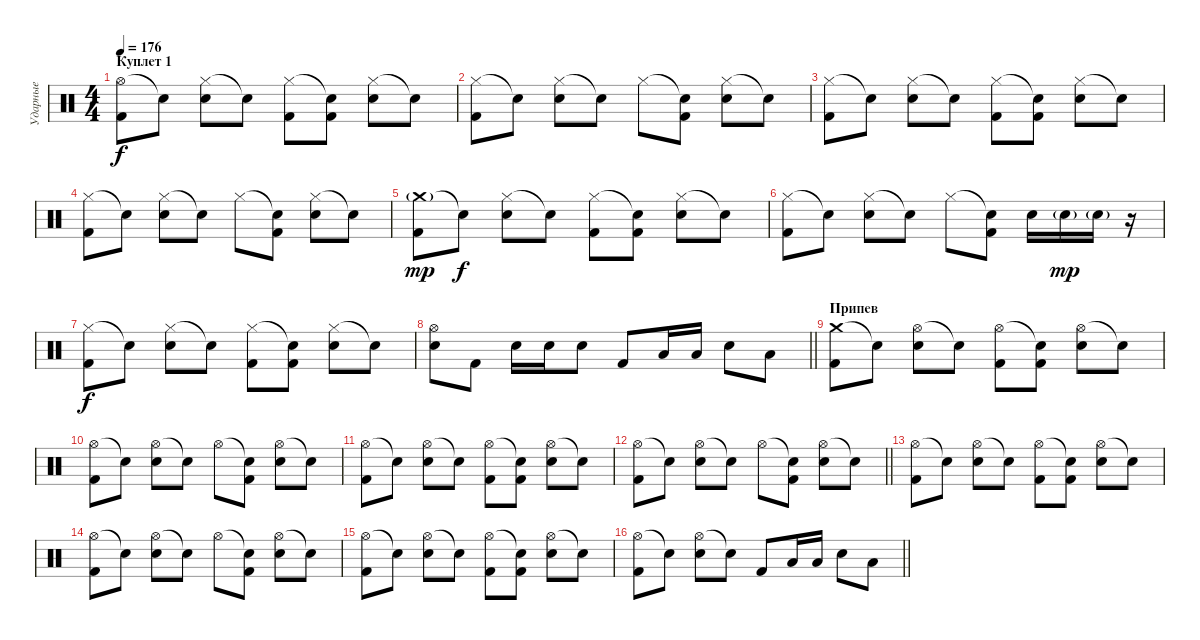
\track ("Ударные" "Ударные") {instrument percussion}
\staff {score}
\articulation defaults
\ts (4 4)
\section ("" "Куплет 1")
\tempo 176
\clef neutral
\ks c
("Hi-Hat (open)" "Kick (hit) 2").8{dy f} "Snare (hit)"{t}.8 ("Hi-Hat (closed)" "Snare (hit) 2").8 "Snare (hit)"{t}.8 ("Hi-Hat (closed)" "Kick (hit) 2").8 ("Snare (hit)"{t} "Kick (hit) 2").8 ("Hi-Hat (closed)" "Snare (hit) 2").8 "Snare (hit)"{t}.8 |
("Hi-Hat (closed)" "Kick (hit) 2").8 "Snare (hit)"{t}.8 ("Hi-Hat (closed)" "Snare (hit) 2").8 "Snare (hit)"{t}.8 "Hi-Hat (closed)".8 ("Snare (hit)"{t} "Kick (hit) 2").8 ("Hi-Hat (closed)" "Snare (hit) 2").8 "Snare (hit)"{t}.8 |
("Hi-Hat (closed)" "Kick (hit) 2").8 "Snare (hit)"{t}.8 ("Hi-Hat (closed)" "Snare (hit) 2").8 "Snare (hit)"{t}.8 ("Hi-Hat (closed)" "Kick (hit) 2").8 ("Snare (hit)"{t} "Kick (hit) 2").8 ("Hi-Hat (closed)" "Snare (hit) 2").8 "Snare (hit)"{t}.8 |
("Hi-Hat (closed)" "Kick (hit) 2").8 "Snare (hit)"{t}.8 ("Hi-Hat (closed)" "Snare (hit) 2").8 "Snare (hit)"{t}.8 "Hi-Hat (closed)".8 ("Snare (hit)"{t} "Kick (hit) 2").8 ("Hi-Hat (closed)" "Snare (hit) 2").8 "Snare (hit)"{t}.8 |
("Crash medium (hit)"{g} "Kick (hit) 2").8{dy mp} "Snare (hit)"{t}.8{dy f} ("Hi-Hat (closed)" "Snare (hit) 2").8 "Snare (hit)"{t}.8 ("Hi-Hat (closed)" "Kick (hit) 2").8 ("Snare (hit)"{t} "Kick (hit) 2").8 ("Hi-Hat (closed)" "Snare (hit) 2").8 "Snare (hit)"{t}.8 |
("Hi-Hat (closed)" "Kick (hit) 2").8 "Snare (hit)"{t}.8 ("Hi-Hat (closed)" "Snare (hit) 2").8 "Snare (hit)"{t}.8 "Hi-Hat (closed)".8 ("Snare (hit)"{t} "Kick (hit) 2").8 "Snare (hit) 2".16 "Snare (hit) 2"{g}.16{dy mp} "Snare (hit) 2"{g}.16 r.16 |
("Hi-Hat (closed)" "Kick (hit) 2").8{dy f} "Snare (hit)"{t}.8 ("Hi-Hat (closed)" "Snare (hit) 2").8 "Snare (hit)"{t}.8 ("Hi-Hat (closed)" "Kick (hit) 2").8 ("Snare (hit)"{t} "Kick (hit) 2").8 ("Hi-Hat (closed)" "Snare (hit) 2").8 "Snare (hit)"{t}.8 |
\barLineRight lightlight
("Hi-Hat (open)" "Snare (hit) 2").8 "Kick (hit) 2".8 "Snare (hit) 2".16 "Snare (hit) 2".16 "Snare (hit) 2".8 "Kick (hit) 2".8 "Low Tom (hit)".16 "Low Tom (hit)".16 "Snare (hit) 2".8 "Low Floor Tom (hit)".8 |
\section ("" "Припев")
("Crash medium (hit)" "Kick (hit) 2").8 "Snare (hit)"{t}.8 ("Hi-Hat (open)" "Snare (hit) 2").8 "Snare (hit)"{t}.8 ("Hi-Hat (open)" "Kick (hit) 2").8 ("Snare (hit)"{t} "Kick (hit) 2").8 ("Hi-Hat (open)" "Snare (hit) 2").8 "Snare (hit)"{t}.8 |
("Hi-Hat (open)" "Kick (hit) 2").8 "Snare (hit)"{t}.8 ("Hi-Hat (open)" "Snare (hit) 2").8 "Snare (hit)"{t}.8 "Hi-Hat (open)".8 ("Snare (hit)"{t} "Kick (hit) 2").8 ("Hi-Hat (open)" "Snare (hit) 2").8 "Snare (hit)"{t}.8 |
("Hi-Hat (open)" "Kick (hit) 2").8 "Snare (hit)"{t}.8 ("Hi-Hat (open)" "Snare (hit) 2").8 "Snare (hit)"{t}.8 ("Hi-Hat (open)" "Kick (hit) 2").8 ("Snare (hit)"{t} "Kick (hit) 2").8 ("Hi-Hat (open)" "Snare (hit) 2").8 "Snare (hit)"{t}.8 |
\barLineRight lightlight
("Hi-Hat (open)" "Kick (hit) 2").8 "Snare (hit)"{t}.8 ("Hi-Hat (open)" "Snare (hit) 2").8 "Snare (hit)"{t}.8 "Hi-Hat (open)".8 ("Snare (hit)"{t} "Kick (hit) 2").8 ("Hi-Hat (open)" "Snare (hit) 2").8 "Snare (hit)"{t}.8 |
("Hi-Hat (open)" "Kick (hit) 2").8 "Snare (hit)"{t}.8 ("Hi-Hat (open)" "Snare (hit) 2").8 "Snare (hit)"{t}.8 ("Hi-Hat (open)" "Kick (hit) 2").8 ("Snare (hit)"{t} "Kick (hit) 2").8 ("Hi-Hat (open)" "Snare (hit) 2").8 "Snare (hit)"{t}.8 |
("Hi-Hat (open)" "Kick (hit) 2").8 "Snare (hit)"{t}.8 ("Hi-Hat (open)" "Snare (hit) 2").8 "Snare (hit)"{t}.8 "Hi-Hat (open)".8 ("Snare (hit)"{t} "Kick (hit) 2").8 ("Hi-Hat (open)" "Snare (hit) 2").8 "Snare (hit)"{t}.8 |
("Hi-Hat (open)" "Kick (hit) 2").8 "Snare (hit)"{t}.8 ("Hi-Hat (open)" "Snare (hit) 2").8 "Snare (hit)"{t}.8 ("Hi-Hat (open)" "Kick (hit) 2").8 ("Snare (hit)"{t} "Kick (hit) 2").8 ("Hi-Hat (open)" "Snare (hit) 2").8 "Snare (hit)"{t}.8 |
\barLineRight lightlight
("Hi-Hat (open)" "Kick (hit) 2").8 "Snare (hit)"{t}.8 ("Hi-Hat (open)" "Snare (hit) 2").8 "Snare (hit)"{t}.8 "Kick (hit) 2".8 "Low Tom (hit)".16 "Low Tom (hit)".16 "Snare (hit) 2".8 "Low Floor Tom (hit)".8
